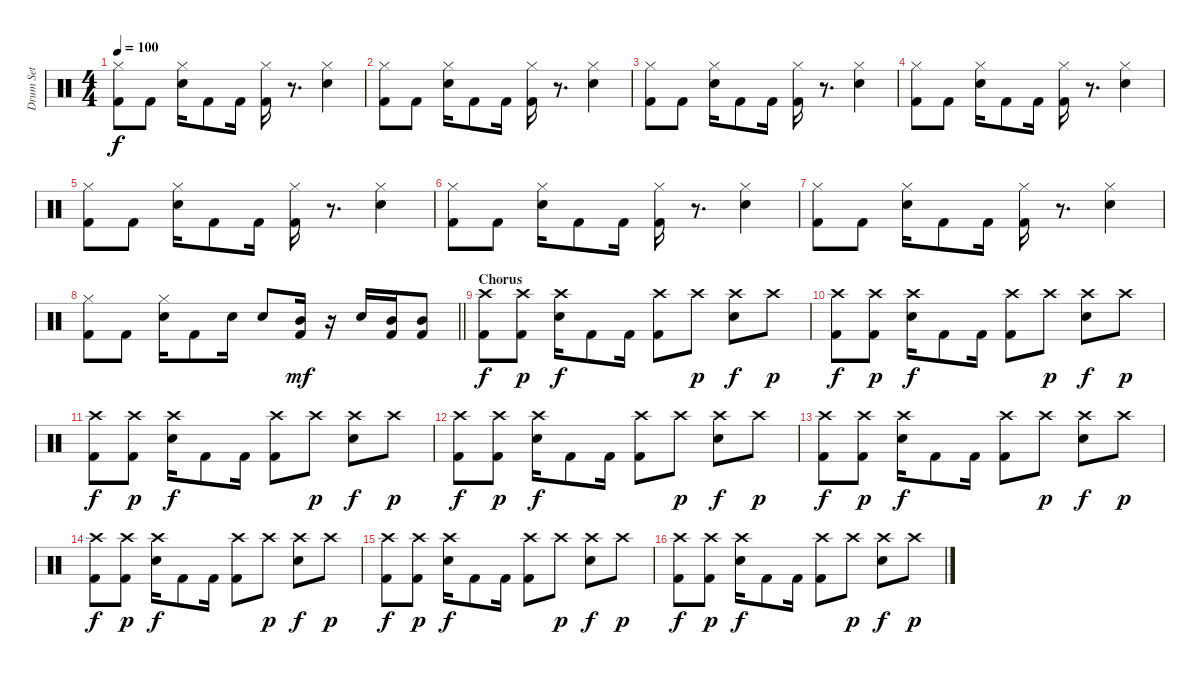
\track ("Drum Set" "Drum Set") {instrument percussion}
\staff {score}
\articulation defaults
\ts (4 4)
\tempo 100
\clef neutral
\ks c
("Hi-Hat (closed)" "Kick (hit) 2").8{dy f} "Kick (hit) 2".8 ("Hi-Hat (closed)" "Snare (hit) 2").16 "Kick (hit) 2".8 "Kick (hit) 2".16 ("Hi-Hat (closed)" "Kick (hit) 2").16 r.8{d} ("Hi-Hat (closed)" "Snare (hit) 2").4 |
("Hi-Hat (closed)" "Kick (hit) 2").8 "Kick (hit) 2".8 ("Hi-Hat (closed)" "Snare (hit) 2").16 "Kick (hit) 2".8 "Kick (hit) 2".16 ("Hi-Hat (closed)" "Kick (hit) 2").16 r.8{d} ("Hi-Hat (closed)" "Snare (hit) 2").4 |
("Hi-Hat (closed)" "Kick (hit) 2").8 "Kick (hit) 2".8 ("Hi-Hat (closed)" "Snare (hit) 2").16 "Kick (hit) 2".8 "Kick (hit) 2".16 ("Hi-Hat (closed)" "Kick (hit) 2").16 r.8{d} ("Hi-Hat (closed)" "Snare (hit) 2").4 |
("Hi-Hat (closed)" "Kick (hit) 2").8 "Kick (hit) 2".8 ("Hi-Hat (closed)" "Snare (hit) 2").16 "Kick (hit) 2".8 "Kick (hit) 2".16 ("Hi-Hat (closed)" "Kick (hit) 2").16 r.8{d} ("Hi-Hat (closed)" "Snare (hit) 2").4 |
("Hi-Hat (closed)" "Kick (hit) 2").8 "Kick (hit) 2".8 ("Hi-Hat (closed)" "Snare (hit) 2").16 "Kick (hit) 2".8 "Kick (hit) 2".16 ("Hi-Hat (closed)" "Kick (hit) 2").16 r.8{d} ("Hi-Hat (closed)" "Snare (hit) 2").4 |
("Hi-Hat (closed)" "Kick (hit) 2").8 "Kick (hit) 2".8 ("Hi-Hat (closed)" "Snare (hit) 2").16 "Kick (hit) 2".8 "Kick (hit) 2".16 ("Hi-Hat (closed)" "Kick (hit) 2").16 r.8{d} ("Hi-Hat (closed)" "Snare (hit) 2").4 |
("Hi-Hat (closed)" "Kick (hit) 2").8 "Kick (hit) 2".8 ("Hi-Hat (closed)" "Snare (hit) 2").16 "Kick (hit) 2".8 "Kick (hit) 2".16 ("Hi-Hat (closed)" "Kick (hit) 2").16 r.8{d} ("Hi-Hat (closed)" "Snare (hit) 2").4 |
\barLineRight lightlight
("Hi-Hat (closed)" "Kick (hit) 2").8 "Kick (hit) 2".8 ("Hi-Hat (closed)" "Snare (hit) 2").16 "Kick (hit) 2".8 "Snare (hit) 2".16 "Snare (hit) 2".8 ("Mid Tom (hit)" "Kick (hit) 2").16{dy mf} r.16 "Snare (hit) 2".16 ("Mid Tom (hit)" "Kick (hit) 2").16 ("Mid Tom (hit)" "Kick (hit) 2").8 |
\section ("" "Chorus")
("Crash high (hit)" "Kick (hit) 2").8{dy f} ("Crash high (hit)" "Kick (hit) 2").8{dy p} ("Crash high (hit)" "Snare (hit) 2").16{dy f} "Kick (hit) 2".8 "Kick (hit) 2".16 ("Crash high (hit)" "Kick (hit) 2").8 "Crash high (hit)".8{dy p} ("Crash high (hit)" "Snare (hit) 2").8{dy f} "Crash high (hit)".8{dy p} |
("Crash high (hit)" "Kick (hit) 2").8{dy f} ("Crash high (hit)" "Kick (hit) 2").8{dy p} ("Crash high (hit)" "Snare (hit) 2").16{dy f} "Kick (hit) 2".8 "Kick (hit) 2".16 ("Crash high (hit)" "Kick (hit) 2").8 "Crash high (hit)".8{dy p} ("Crash high (hit)" "Snare (hit) 2").8{dy f} "Crash high (hit)".8{dy p} |
("Crash high (hit)" "Kick (hit) 2").8{dy f} ("Crash high (hit)" "Kick (hit) 2").8{dy p} ("Crash high (hit)" "Snare (hit) 2").16{dy f} "Kick (hit) 2".8 "Kick (hit) 2".16 ("Crash high (hit)" "Kick (hit) 2").8 "Crash high (hit)".8{dy p} ("Crash high (hit)" "Snare (hit) 2").8{dy f} "Crash high (hit)".8{dy p} |
("Crash high (hit)" "Kick (hit) 2").8{dy f} ("Crash high (hit)" "Kick (hit) 2").8{dy p} ("Crash high (hit)" "Snare (hit) 2").16{dy f} "Kick (hit) 2".8 "Kick (hit) 2".16 ("Crash high (hit)" "Kick (hit) 2").8 "Crash high (hit)".8{dy p} ("Crash high (hit)" "Snare (hit) 2").8{dy f} "Crash high (hit)".8{dy p} |
("Crash high (hit)" "Kick (hit) 2").8{dy f} ("Crash high (hit)" "Kick (hit) 2").8{dy p} ("Crash high (hit)" "Snare (hit) 2").16{dy f} "Kick (hit) 2".8 "Kick (hit) 2".16 ("Crash high (hit)" "Kick (hit) 2").8 "Crash high (hit)".8{dy p} ("Crash high (hit)" "Snare (hit) 2").8{dy f} "Crash high (hit)".8{dy p} |
("Crash high (hit)" "Kick (hit) 2").8{dy f} ("Crash high (hit)" "Kick (hit) 2").8{dy p} ("Crash high (hit)" "Snare (hit) 2").16{dy f} "Kick (hit) 2".8 "Kick (hit) 2".16 ("Crash high (hit)" "Kick (hit) 2").8 "Crash high (hit)".8{dy p} ("Crash high (hit)" "Snare (hit) 2").8{dy f} "Crash high (hit)".8{dy p} |
("Crash high (hit)" "Kick (hit) 2").8{dy f} ("Crash high (hit)" "Kick (hit) 2").8{dy p} ("Crash high (hit)" "Snare (hit) 2").16{dy f} "Kick (hit) 2".8 "Kick (hit) 2".16 ("Crash high (hit)" "Kick (hit) 2").8 "Crash high (hit)".8{dy p} ("Crash high (hit)" "Snare (hit) 2").8{dy f} "Crash high (hit)".8{dy p} |
("Crash high (hit)" "Kick (hit) 2").8{dy f} ("Crash high (hit)" "Kick (hit) 2").8{dy p} ("Crash high (hit)" "Snare (hit) 2").16{dy f} "Kick (hit) 2".8 "Kick (hit) 2".16 ("Crash high (hit)" "Kick (hit) 2").8 "Crash high (hit)".8{dy p} ("Crash high (hit)" "Snare (hit) 2").8{dy f} "Crash high (hit)".8{dy p}
